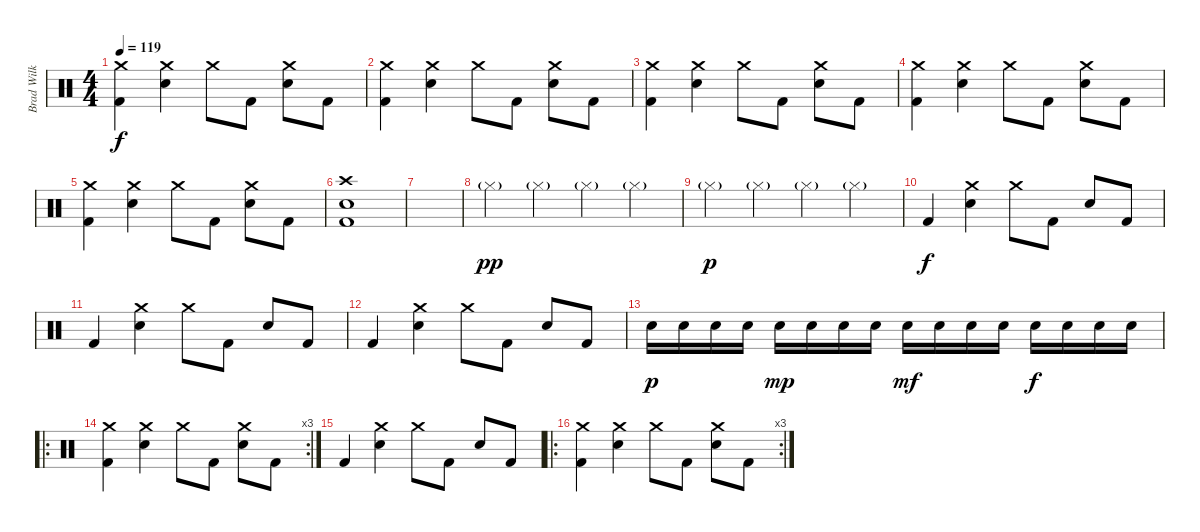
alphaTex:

\track ("Brad Wilk" "Brad Wilk") {instrument percussion}
\staff {score}
\articulation defaults
\ts (4 4)
\tempo 119
\clef neutral
\ks c
("Crash medium (hit)" "Kick (hit) 2").4{dy f} ("Crash medium (hit)" "Electric Snare (hit)").4 "Crash medium (hit)".8 "Kick (hit) 2".8 ("Crash medium (hit)" "Electric Snare (hit)").8 "Kick (hit) 2".8 |
("Crash medium (hit)" "Kick (hit) 2").4 ("Crash medium (hit)" "Electric Snare (hit)").4 "Crash medium (hit)".8 "Kick (hit) 2".8 ("Crash medium (hit)" "Electric Snare (hit)").8 "Kick (hit) 2".8 |
("Crash medium (hit)" "Kick (hit) 2").4 ("Crash medium (hit)" "Electric Snare (hit)").4 "Crash medium (hit)".8 "Kick (hit) 2".8 ("Crash medium (hit)" "Electric Snare (hit)").8 "Kick (hit) 2".8 |
("Crash medium (hit)" "Kick (hit) 2").4 ("Crash medium (hit)" "Electric Snare (hit)").4 "Crash medium (hit)".8 "Kick (hit) 2".8 ("Crash medium (hit)" "Electric Snare (hit)").8 "Kick (hit) 2".8 |
("Crash medium (hit)" "Kick (hit) 2").4 ("Crash medium (hit)" "Electric Snare (hit)").4 "Crash medium (hit)".8 "Kick (hit) 2".8 ("Crash medium (hit)" "Electric Snare (hit)").8 "Kick (hit) 2".8 |
("Crash high (hit)" "Electric Snare (hit)" "Kick (hit) 2").1 |
|
"Hi-Hat (closed)"{g}.4{dy pp} "Hi-Hat (closed)"{g}.4 "Hi-Hat (closed)"{g}.4 "Hi-Hat (closed)"{g}.4 |
"Hi-Hat (closed)"{g}.4{dy p} "Hi-Hat (closed)"{g}.4 "Hi-Hat (closed)"{g}.4 "Hi-Hat (closed)"{g}.4 |
"Kick (hit) 2".4{dy f} ("Crash medium (hit)" "Electric Snare (hit)").4 "Crash medium (hit)".8 "Kick (hit) 2".8 "Electric Snare (hit)".8 "Kick (hit) 2".8 |
"Kick (hit) 2".4 ("Crash medium (hit)" "Electric Snare (hit)").4 "Crash medium (hit)".8 "Kick (hit) 2".8 "Electric Snare (hit)".8 "Kick (hit) 2".8 |
"Kick (hit) 2".4 ("Crash medium (hit)" "Electric Snare (hit)").4 "Crash medium (hit)".8 "Kick (hit) 2".8 "Electric Snare (hit)".8 "Kick (hit) 2".8 |
"Electric Snare (hit)".16{dy p} "Electric Snare (hit)".16 "Electric Snare (hit)".16 "Electric Snare (hit)".16 "Electric Snare (hit)".16{dy mp} "Electric Snare (hit)".16 "Electric Snare (hit)".16 "Electric Snare (hit)".16 "Electric Snare (hit)".16{dy mf} "Electric Snare (hit)".16 "Electric Snare (hit)".16 "Electric Snare (hit)".16 "Electric Snare (hit)".16{dy f} "Electric Snare (hit)".16 "Electric Snare (hit)".16 "Electric Snare (hit)".16 |
\ro
\rc 3
("Crash medium (hit)" "Kick (hit) 2").4 ("Crash medium (hit)" "Electric Snare (hit)").4 "Crash medium (hit)".8 "Kick (hit) 2".8 ("Crash medium (hit)" "Electric Snare (hit)").8 "Kick (hit) 2".8 |
"Kick (hit) 2".4 ("Crash medium (hit)" "Electric Snare (hit)").4 "Crash medium (hit)".8 "Kick (hit) 2".8 "Electric Snare (hit)".8 "Kick (hit) 2".8 |
\ro
\rc 3
("Crash medium (hit)" "Kick (hit) 2").4 ("Crash medium (hit)" "Electric Snare (hit)").4 "Crash medium (hit)".8 "Kick (hit) 2".8 ("Crash medium (hit)" "Electric Snare (hit)").8 "Kick (hit) 2".8
